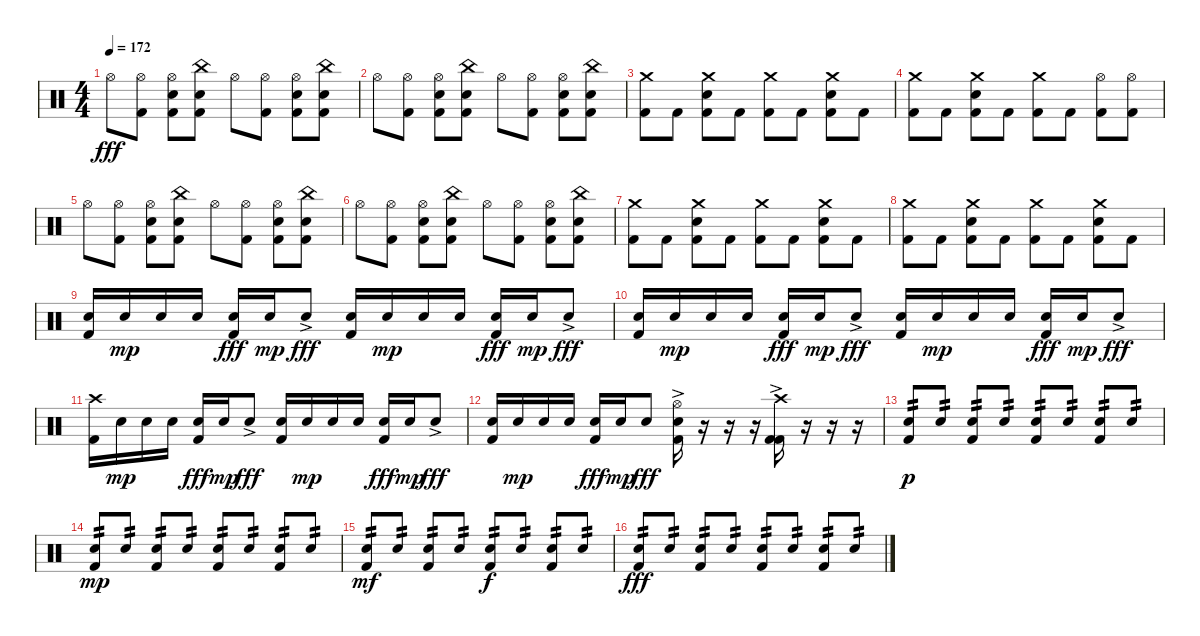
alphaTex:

\track (" " " ") {instrument percussion}
\staff {score}
\articulation defaults
\ts (4 4)
\tempo 172
\clef neutral
\ks c "Hi-Hat (open)".8{dy fff}
("Hi-Hat (open)" "Kick (hit) 2").8 ("Hi-Hat (open)" "Snare (hit) 2" "Kick (hit) 2").8 ("China (hit)" "Snare (hit) 2" "Kick (hit) 2").8 "Hi-Hat (open)".8 ("Hi-Hat (open)" "Kick (hit) 2").8 ("Hi-Hat (open)" "Snare (hit) 2" "Kick (hit) 2").8 ("China (hit)" "Snare (hit) 2" "Kick (hit) 2").8 |
"Hi-Hat (open)".8 ("Hi-Hat (open)" "Kick (hit) 2").8 ("Hi-Hat (open)" "Snare (hit) 2" "Kick (hit) 2").8 ("China (hit)" "Snare (hit) 2" "Kick (hit) 2").8 "Hi-Hat (open)".8 ("Hi-Hat (open)" "Kick (hit) 2").8 ("Hi-Hat (open)" "Snare (hit) 2" "Kick (hit) 2").8 ("China (hit)" "Snare (hit) 2" "Kick (hit) 2").8 |
("Crash medium (hit)" "Kick (hit) 2").8 "Kick (hit) 2".8 ("Crash medium (hit)" "Snare (hit) 2" "Kick (hit) 2").8 "Kick (hit) 2".8 ("Crash medium (hit)" "Kick (hit) 2").8 "Kick (hit) 2".8 ("Crash medium (hit)" "Snare (hit) 2" "Kick (hit) 2").8 "Kick (hit) 2".8 |
("Crash medium (hit)" "Kick (hit) 2").8 "Kick (hit) 2".8 ("Crash medium (hit)" "Snare (hit) 2" "Kick (hit) 2").8 "Kick (hit) 2".8 ("Crash medium (hit)" "Kick (hit) 2").8 "Kick (hit) 2".8 ("Hi-Hat (open)" "Kick (hit) 2").8 ("Hi-Hat (open)" "Kick (hit) 2").8 |
"Hi-Hat (open)".8 ("Hi-Hat (open)" "Kick (hit) 2").8 ("Hi-Hat (open)" "Snare (hit) 2" "Kick (hit) 2").8 ("China (hit)" "Snare (hit) 2" "Kick (hit) 2").8 "Hi-Hat (open)".8 ("Hi-Hat (open)" "Kick (hit) 2").8 ("Hi-Hat (open)" "Snare (hit) 2" "Kick (hit) 2").8 ("China (hit)" "Snare (hit) 2" "Kick (hit) 2").8 |
"Hi-Hat (open)".8 ("Hi-Hat (open)" "Kick (hit) 2").8 ("Hi-Hat (open)" "Snare (hit) 2" "Kick (hit) 2").8 ("China (hit)" "Snare (hit) 2" "Kick (hit) 2").8 "Hi-Hat (open)".8 ("Hi-Hat (open)" "Kick (hit) 2").8 ("Hi-Hat (open)" "Snare (hit) 2" "Kick (hit) 2").8 ("China (hit)" "Snare (hit) 2" "Kick (hit) 2").8 |
("Crash medium (hit)" "Kick (hit) 2").8 "Kick (hit) 2".8 ("Crash medium (hit)" "Snare (hit) 2" "Kick (hit) 2").8 "Kick (hit) 2".8 ("Crash medium (hit)" "Kick (hit) 2").8 "Kick (hit) 2".8 ("Crash medium (hit)" "Snare (hit) 2" "Kick (hit) 2").8 "Kick (hit) 2".8 |
("Crash medium (hit)" "Kick (hit) 2").8 "Kick (hit) 2".8 ("Crash medium (hit)" "Snare (hit) 2" "Kick (hit) 2").8 "Kick (hit) 2".8 ("Crash medium (hit)" "Kick (hit) 2").8 "Kick (hit) 2".8 ("Crash medium (hit)" "Snare (hit) 2" "Kick (hit) 2").8 "Kick (hit) 2".8 |
("Snare (hit) 2" "Kick (hit) 2").16 "Snare (hit) 2".16{dy mp} "Snare (hit) 2".16 "Snare (hit) 2".16 ("Snare (hit) 2" "Kick (hit) 2").16{dy fff} "Snare (hit) 2".16{dy mp} "Snare (hit) 2"{ac}.8{dy fff} ("Snare (hit) 2" "Kick (hit) 2").16 "Snare (hit) 2".16{dy mp} "Snare (hit) 2".16 "Snare (hit) 2".16 ("Snare (hit) 2" "Kick (hit) 2").16{dy fff} "Snare (hit) 2".16{dy mp} "Snare (hit) 2"{ac}.8{dy fff} |
("Snare (hit) 2" "Kick (hit) 2").16 "Snare (hit) 2".16{dy mp} "Snare (hit) 2".16 "Snare (hit) 2".16 ("Snare (hit) 2" "Kick (hit) 2").16{dy fff} "Snare (hit) 2".16{dy mp} "Snare (hit) 2"{ac}.8{dy fff} ("Snare (hit) 2" "Kick (hit) 2").16 "Snare (hit) 2".16{dy mp} "Snare (hit) 2".16 "Snare (hit) 2".16 ("Snare (hit) 2" "Kick (hit) 2").16{dy fff} "Snare (hit) 2".16{dy mp} "Snare (hit) 2"{ac}.8{dy fff} |
("Crash high (hit)" "Kick (hit) 2").16 "Snare (hit) 2".16{dy mp} "Snare (hit) 2".16 "Snare (hit) 2".16 ("Snare (hit) 2" "Kick (hit) 2").16{dy fff} "Snare (hit) 2".16{dy mp} "Snare (hit) 2"{ac}.8{dy fff} ("Snare (hit) 2" "Kick (hit) 2").16 "Snare (hit) 2".16{dy mp} "Snare (hit) 2".16 "Snare (hit) 2".16 ("Snare (hit) 2" "Kick (hit) 2").16{dy fff} "Snare (hit) 2".16{dy mp} "Snare (hit) 2"{ac}.8{dy fff} |
("Snare (hit) 2" "Kick (hit) 2").16 "Snare (hit) 2".16{dy mp} "Snare (hit) 2".16 "Snare (hit) 2".16 ("Snare (hit) 2" "Kick (hit) 2").16{dy fff} "Snare (hit) 2".16{dy mp} "Snare (hit) 2".8{dy fff} ("Hi-Hat (open)"{ac} "Snare (hit) 2"{ac} "Kick (hit) 2"{ac}).16 r.16 r.16 r.16 ("Crash high (hit)"{ac} "Kick (hit) 2" "Kick (hit) 2"{ac}).16 r.16 r.16 r.16 |
("Snare (hit) 2" "Kick (hit) 2").8{tp 2 dy p} "Snare (hit) 2".8{tp 2} ("Snare (hit) 2" "Kick (hit) 2").8{tp 2} "Snare (hit) 2".8{tp 2} ("Snare (hit) 2" "Kick (hit) 2").8{tp 2} "Snare (hit) 2".8{tp 2} ("Snare (hit) 2" "Kick (hit) 2").8{tp 2} "Snare (hit) 2".8{tp 2} |
("Snare (hit) 2" "Kick (hit) 2").8{tp 2 dy mp} "Snare (hit) 2".8{tp 2} ("Snare (hit) 2" "Kick (hit) 2").8{tp 2} "Snare (hit) 2".8{tp 2} ("Snare (hit) 2" "Kick (hit) 2").8{tp 2} "Snare (hit) 2".8{tp 2} ("Snare (hit) 2" "Kick (hit) 2").8{tp 2} "Snare (hit) 2".8{tp 2} |
("Snare (hit) 2" "Kick (hit) 2").8{tp 2 dy mf} "Snare (hit) 2".8{tp 2} ("Snare (hit) 2" "Kick (hit) 2").8{tp 2} "Snare (hit) 2".8{tp 2} ("Snare (hit) 2" "Kick (hit) 2").8{tp 2 dy f} "Snare (hit) 2".8{tp 2} ("Snare (hit) 2" "Kick (hit) 2").8{tp 2} "Snare (hit) 2".8{tp 2} |
("Snare (hit) 2" "Kick (hit) 2").8{tp 2 dy fff} "Snare (hit) 2".8{tp 2} ("Snare (hit) 2" "Kick (hit) 2").8{tp 2} "Snare (hit) 2".8{tp 2} ("Snare (hit) 2" "Kick (hit) 2").8{tp 2} "Snare (hit) 2".8{tp 2} ("Snare (hit) 2" "Kick (hit) 2").8{tp 2} "Snare (hit) 2".8{tp 2}
